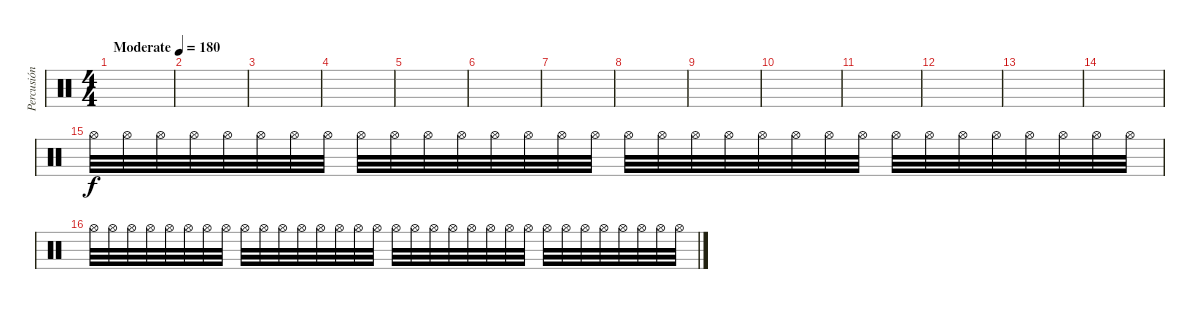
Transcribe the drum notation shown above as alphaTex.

\track ("Percusión" "Percusión") {instrument percussion}
\staff {score}
\articulation defaults
\ts (4 4)
\tempo (180 "Moderate")
\clef neutral
\ks c
|
|
|
|
|
|
|
|
|
|
|
|
|
|
"Hi-Hat (open)".32{volume 10} "Hi-Hat (open)".32 "Hi-Hat (open)".32 "Hi-Hat (open)".32 "Hi-Hat (open)".32 "Hi-Hat (open)".32 "Hi-Hat (open)".32 "Hi-Hat (open)".32 "Hi-Hat (open)".32 "Hi-Hat (open)".32 "Hi-Hat (open)".32 "Hi-Hat (open)".32 "Hi-Hat (open)".32 "Hi-Hat (open)".32 "Hi-Hat (open)".32 "Hi-Hat (open)".32 "Hi-Hat (open)".32 "Hi-Hat (open)".32 "Hi-Hat (open)".32 "Hi-Hat (open)".32 "Hi-Hat (open)".32 "Hi-Hat (open)".32 "Hi-Hat (open)".32 "Hi-Hat (open)".32 "Hi-Hat (open)".32 "Hi-Hat (open)".32 "Hi-Hat (open)".32 "Hi-Hat (open)".32 "Hi-Hat (open)".32 "Hi-Hat (open)".32 "Hi-Hat (open)".32 "Hi-Hat (open)".32 |
"Hi-Hat (open)".32 "Hi-Hat (open)".32 "Hi-Hat (open)".32 "Hi-Hat (open)".32 "Hi-Hat (open)".32 "Hi-Hat (open)".32 "Hi-Hat (open)".32 "Hi-Hat (open)".32 "Hi-Hat (open)".32 "Hi-Hat (open)".32 "Hi-Hat (open)".32 "Hi-Hat (open)".32 "Hi-Hat (open)".32 "Hi-Hat (open)".32 "Hi-Hat (open)".32 "Hi-Hat (open)".32 "Hi-Hat (open)".32 "Hi-Hat (open)".32 "Hi-Hat (open)".32 "Hi-Hat (open)".32 "Hi-Hat (open)".32 "Hi-Hat (open)".32 "Hi-Hat (open)".32 "Hi-Hat (open)".32 "Hi-Hat (open)".32 "Hi-Hat (open)".32 "Hi-Hat (open)".32 "Hi-Hat (open)".32 "Hi-Hat (open)".32 "Hi-Hat (open)".32 "Hi-Hat (open)".32 "Hi-Hat (open)".32
